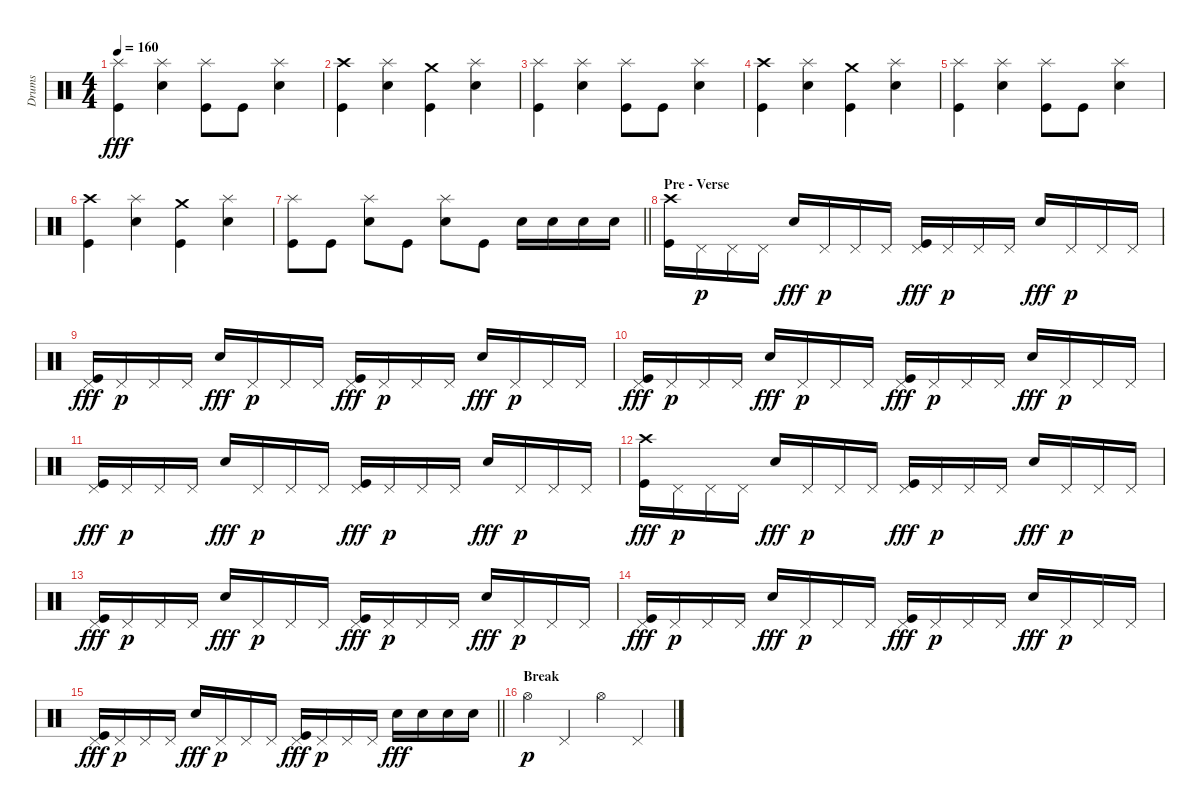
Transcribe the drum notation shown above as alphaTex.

\track ("Drums" "Drums") {instrument percussion}
\staff {score}
\articulation defaults
\ts (4 4)
\tempo 160
\clef neutral
\ks c
("Splash (hit)" "Kick (hit)").4{dy fff} ("Splash (hit)" "Electric Snare (hit)").4 ("Splash (hit)" "Kick (hit)").8 "Kick (hit)".8 ("Splash (hit)" "Electric Snare (hit)").4 |
("Crash high (hit)" "Kick (hit)").4 ("Splash (hit)" "Electric Snare (hit)").4 ("Crash medium (hit)" "Kick (hit)").4 ("Splash (hit)" "Electric Snare (hit)").4 |
("Splash (hit)" "Kick (hit)").4 ("Splash (hit)" "Electric Snare (hit)").4 ("Splash (hit)" "Kick (hit)").8 "Kick (hit)".8 ("Splash (hit)" "Electric Snare (hit)").4 |
("Crash high (hit)" "Kick (hit)").4 ("Splash (hit)" "Electric Snare (hit)").4 ("Crash medium (hit)" "Kick (hit)").4 ("Splash (hit)" "Electric Snare (hit)").4 |
("Splash (hit)" "Kick (hit)").4 ("Splash (hit)" "Electric Snare (hit)").4 ("Splash (hit)" "Kick (hit)").8 "Kick (hit)".8 ("Splash (hit)" "Electric Snare (hit)").4 |
("Crash high (hit)" "Kick (hit)").4 ("Splash (hit)" "Electric Snare (hit)").4 ("Crash medium (hit)" "Kick (hit)").4 ("Splash (hit)" "Electric Snare (hit)").4 |
\barLineRight lightlight
("Splash (hit)" "Kick (hit)").8 "Kick (hit)".8 ("Splash (hit)" "Electric Snare (hit)").8 "Kick (hit)".8 ("Splash (hit)" "Electric Snare (hit)").8 "Kick (hit)".8 "Electric Snare (hit)".16 "Electric Snare (hit)".16 "Electric Snare (hit)".16 "Electric Snare (hit)".16 |
\section ("" "Pre - Verse")
("Crash high (hit)" "Kick (hit)").16 "Pedal Hi-Hat (hit)".16{dy p} "Pedal Hi-Hat (hit)".16 "Pedal Hi-Hat (hit)".16 "Electric Snare (hit)".16{dy fff} "Pedal Hi-Hat (hit)".16{dy p} "Pedal Hi-Hat (hit)".16 "Pedal Hi-Hat (hit)".16 ("Pedal Hi-Hat (hit)" "Kick (hit)").16{dy fff} "Pedal Hi-Hat (hit)".16{dy p} "Pedal Hi-Hat (hit)".16 "Pedal Hi-Hat (hit)".16 "Electric Snare (hit)".16{dy fff} "Pedal Hi-Hat (hit)".16{dy p} "Pedal Hi-Hat (hit)".16 "Pedal Hi-Hat (hit)".16 |
("Pedal Hi-Hat (hit)" "Kick (hit)").16{dy fff} "Pedal Hi-Hat (hit)".16{dy p} "Pedal Hi-Hat (hit)".16 "Pedal Hi-Hat (hit)".16 "Electric Snare (hit)".16{dy fff} "Pedal Hi-Hat (hit)".16{dy p} "Pedal Hi-Hat (hit)".16 "Pedal Hi-Hat (hit)".16 ("Pedal Hi-Hat (hit)" "Kick (hit)").16{dy fff} "Pedal Hi-Hat (hit)".16{dy p} "Pedal Hi-Hat (hit)".16 "Pedal Hi-Hat (hit)".16 "Electric Snare (hit)".16{dy fff} "Pedal Hi-Hat (hit)".16{dy p} "Pedal Hi-Hat (hit)".16 "Pedal Hi-Hat (hit)".16 |
("Pedal Hi-Hat (hit)" "Kick (hit)").16{dy fff} "Pedal Hi-Hat (hit)".16{dy p} "Pedal Hi-Hat (hit)".16 "Pedal Hi-Hat (hit)".16 "Electric Snare (hit)".16{dy fff} "Pedal Hi-Hat (hit)".16{dy p} "Pedal Hi-Hat (hit)".16 "Pedal Hi-Hat (hit)".16 ("Pedal Hi-Hat (hit)" "Kick (hit)").16{dy fff} "Pedal Hi-Hat (hit)".16{dy p} "Pedal Hi-Hat (hit)".16 "Pedal Hi-Hat (hit)".16 "Electric Snare (hit)".16{dy fff} "Pedal Hi-Hat (hit)".16{dy p} "Pedal Hi-Hat (hit)".16 "Pedal Hi-Hat (hit)".16 |
("Pedal Hi-Hat (hit)" "Kick (hit)").16{dy fff} "Pedal Hi-Hat (hit)".16{dy p} "Pedal Hi-Hat (hit)".16 "Pedal Hi-Hat (hit)".16 "Electric Snare (hit)".16{dy fff} "Pedal Hi-Hat (hit)".16{dy p} "Pedal Hi-Hat (hit)".16 "Pedal Hi-Hat (hit)".16 ("Pedal Hi-Hat (hit)" "Kick (hit)").16{dy fff} "Pedal Hi-Hat (hit)".16{dy p} "Pedal Hi-Hat (hit)".16 "Pedal Hi-Hat (hit)".16 "Electric Snare (hit)".16{dy fff} "Pedal Hi-Hat (hit)".16{dy p} "Pedal Hi-Hat (hit)".16 "Pedal Hi-Hat (hit)".16 |
("Crash high (hit)" "Kick (hit)").16{dy fff} "Pedal Hi-Hat (hit)".16{dy p} "Pedal Hi-Hat (hit)".16 "Pedal Hi-Hat (hit)".16 "Electric Snare (hit)".16{dy fff} "Pedal Hi-Hat (hit)".16{dy p} "Pedal Hi-Hat (hit)".16 "Pedal Hi-Hat (hit)".16 ("Pedal Hi-Hat (hit)" "Kick (hit)").16{dy fff} "Pedal Hi-Hat (hit)".16{dy p} "Pedal Hi-Hat (hit)".16 "Pedal Hi-Hat (hit)".16 "Electric Snare (hit)".16{dy fff} "Pedal Hi-Hat (hit)".16{dy p} "Pedal Hi-Hat (hit)".16 "Pedal Hi-Hat (hit)".16 |
("Pedal Hi-Hat (hit)" "Kick (hit)").16{dy fff} "Pedal Hi-Hat (hit)".16{dy p} "Pedal Hi-Hat (hit)".16 "Pedal Hi-Hat (hit)".16 "Electric Snare (hit)".16{dy fff} "Pedal Hi-Hat (hit)".16{dy p} "Pedal Hi-Hat (hit)".16 "Pedal Hi-Hat (hit)".16 ("Pedal Hi-Hat (hit)" "Kick (hit)").16{dy fff} "Pedal Hi-Hat (hit)".16{dy p} "Pedal Hi-Hat (hit)".16 "Pedal Hi-Hat (hit)".16 "Electric Snare (hit)".16{dy fff} "Pedal Hi-Hat (hit)".16{dy p} "Pedal Hi-Hat (hit)".16 "Pedal Hi-Hat (hit)".16 |
("Pedal Hi-Hat (hit)" "Kick (hit)").16{dy fff} "Pedal Hi-Hat (hit)".16{dy p} "Pedal Hi-Hat (hit)".16 "Pedal Hi-Hat (hit)".16 "Electric Snare (hit)".16{dy fff} "Pedal Hi-Hat (hit)".16{dy p} "Pedal Hi-Hat (hit)".16 "Pedal Hi-Hat (hit)".16 ("Pedal Hi-Hat (hit)" "Kick (hit)").16{dy fff} "Pedal Hi-Hat (hit)".16{dy p} "Pedal Hi-Hat (hit)".16 "Pedal Hi-Hat (hit)".16 "Electric Snare (hit)".16{dy fff} "Pedal Hi-Hat (hit)".16{dy p} "Pedal Hi-Hat (hit)".16 "Pedal Hi-Hat (hit)".16 |
\barLineRight lightlight
("Pedal Hi-Hat (hit)" "Kick (hit)").16{dy fff} "Pedal Hi-Hat (hit)".16{dy p} "Pedal Hi-Hat (hit)".16 "Pedal Hi-Hat (hit)".16 "Electric Snare (hit)".16{dy fff} "Pedal Hi-Hat (hit)".16{dy p} "Pedal Hi-Hat (hit)".16 "Pedal Hi-Hat (hit)".16 ("Pedal Hi-Hat (hit)" "Kick (hit)").16{dy fff} "Pedal Hi-Hat (hit)".16{dy p} "Pedal Hi-Hat (hit)".16 "Pedal Hi-Hat (hit)".16 "Electric Snare (hit)".16{dy fff} "Electric Snare (hit)".16 "Electric Snare (hit)".16 "Electric Snare (hit)".16 |
\section ("" "Break")
"Hi-Hat (open)".4{dy p} "Pedal Hi-Hat (hit)".4 "Hi-Hat (open)".4 "Pedal Hi-Hat (hit)".4
